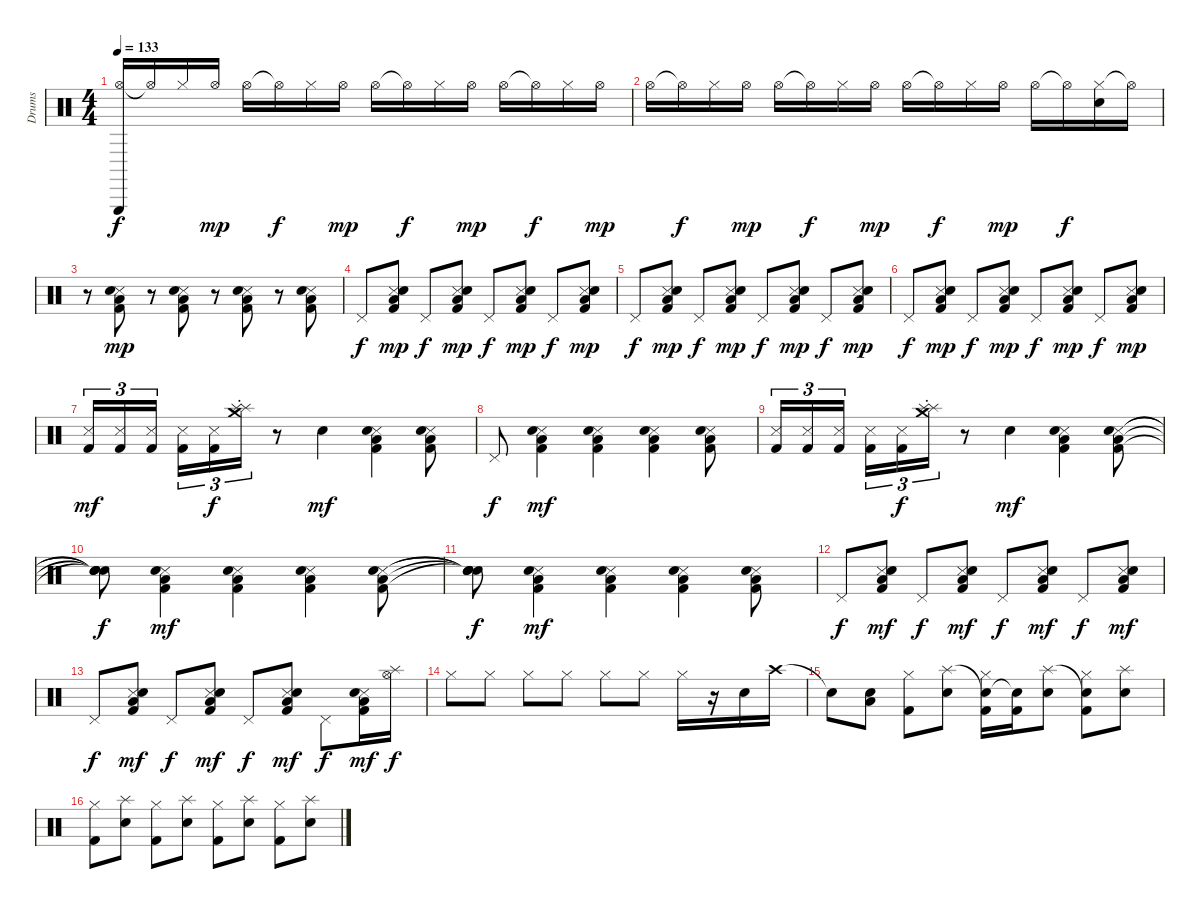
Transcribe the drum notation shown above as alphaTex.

\track ("Drums" "Drums") {instrument percussion}
\staff {score}
\articulation defaults
\ts (4 4)
\tempo 133
\clef neutral
\ks c
("Hi-Hat (open)" "Triangle (hit)").16{dy f} "Hi-Hat (open)"{t}.16 "Hi-Hat (closed)".16 "Hi-Hat (open)".16{dy mp} "Hi-Hat (open)".16 "Hi-Hat (open)"{t}.16{dy f} "Hi-Hat (closed)".16 "Hi-Hat (open)".16{dy mp} "Hi-Hat (open)".16 "Hi-Hat (open)"{t}.16{dy f} "Hi-Hat (closed)".16 "Hi-Hat (open)".16{dy mp} "Hi-Hat (open)".16 "Hi-Hat (open)"{t}.16{dy f} "Hi-Hat (closed)".16 "Hi-Hat (open)".16{dy mp} |
"Hi-Hat (open)".16 "Hi-Hat (open)"{t}.16{dy f} "Hi-Hat (closed)".16 "Hi-Hat (open)".16{dy mp} "Hi-Hat (open)".16 "Hi-Hat (open)"{t}.16{dy f} "Hi-Hat (closed)".16 "Hi-Hat (open)".16{dy mp} "Hi-Hat (open)".16 "Hi-Hat (open)"{t}.16{dy f} "Hi-Hat (closed)".16 "Hi-Hat (open)".16{dy mp} "Hi-Hat (open)".16 "Hi-Hat (open)"{t}.16{dy f} ("Hi-Hat (closed)" "Snare (hit) 2").16 "Hi-Hat (open)"{t}.16 |
r.8 ("Snare (side stick) 3" "Kick (hit) 2" "Low Tom (hit)" "Snare (hit) 2").8{dy mp} r.8 ("Snare (side stick) 3" "Kick (hit) 2" "Low Tom (hit)" "Snare (hit) 2").8 r.8 ("Snare (side stick) 3" "Kick (hit) 2" "Low Tom (hit)" "Snare (hit) 2").8 r.8 ("Snare (side stick) 3" "Kick (hit) 2" "Low Tom (hit)" "Snare (hit) 2").8 |
"Pedal Hi-Hat (hit)".8{dy f} ("Snare (side stick) 3" "Kick (hit) 2" "Low Tom (hit)" "Snare (hit) 2").8{dy mp} "Pedal Hi-Hat (hit)".8{dy f} ("Snare (side stick) 3" "Kick (hit) 2" "Low Tom (hit)" "Snare (hit) 2").8{dy mp} "Pedal Hi-Hat (hit)".8{dy f} ("Snare (side stick) 3" "Kick (hit) 2" "Low Tom (hit)" "Snare (hit) 2").8{dy mp} "Pedal Hi-Hat (hit)".8{dy f} ("Snare (side stick) 3" "Kick (hit) 2" "Low Tom (hit)" "Snare (hit) 2").8{dy mp} |
"Pedal Hi-Hat (hit)".8{dy f} ("Snare (side stick) 3" "Kick (hit) 2" "Low Tom (hit)" "Snare (hit) 2").8{dy mp} "Pedal Hi-Hat (hit)".8{dy f} ("Snare (side stick) 3" "Kick (hit) 2" "Low Tom (hit)" "Snare (hit) 2").8{dy mp} "Pedal Hi-Hat (hit)".8{dy f} ("Snare (side stick) 3" "Kick (hit) 2" "Low Tom (hit)" "Snare (hit) 2").8{dy mp} "Pedal Hi-Hat (hit)".8{dy f} ("Snare (side stick) 3" "Kick (hit) 2" "Low Tom (hit)" "Snare (hit) 2").8{dy mp} |
"Pedal Hi-Hat (hit)".8{dy f} ("Snare (side stick) 3" "Kick (hit) 2" "Low Tom (hit)" "Snare (hit) 2").8{dy mp} "Pedal Hi-Hat (hit)".8{dy f} ("Snare (side stick) 3" "Kick (hit) 2" "Low Tom (hit)" "Snare (hit) 2").8{dy mp} "Pedal Hi-Hat (hit)".8{dy f} ("Snare (side stick) 3" "Kick (hit) 2" "Low Tom (hit)" "Snare (hit) 2").8{dy mp} "Pedal Hi-Hat (hit)".8{dy f} ("Snare (side stick) 3" "Kick (hit) 2" "Low Tom (hit)" "Snare (hit) 2").8{dy mp} |
("Snare (side stick) 3" "Kick (hit) 2").16{tu (3 2) dy mf} ("Snare (side stick) 3" "Kick (hit) 2").16{tu (3 2)} ("Snare (side stick) 3" "Kick (hit) 2").16{tu (3 2) beam splitsecondary} ("Snare (side stick) 3" "Kick (hit) 2").16{tu (3 2)} ("Snare (side stick) 3" "Kick (hit) 2").16{tu (3 2) dy f} ("Splash (hit)" "Splash (hit)" "Crash medium (hit)"{st}).16{tu (3 2)} r.8 "Snare (hit) 2".4{dy mf} ("Snare (side stick) 3" "Kick (hit) 2" "Low Tom (hit)" "Snare (hit) 2").4 ("Snare (side stick) 3" "Kick (hit) 2" "Low Tom (hit)" "Snare (hit) 2").8 |
"Pedal Hi-Hat (hit)".8{dy f} ("Snare (side stick) 3" "Kick (hit) 2" "Low Tom (hit)" "Snare (hit) 2").4{dy mf} ("Snare (side stick) 3" "Kick (hit) 2" "Low Tom (hit)" "Snare (hit) 2").4 ("Snare (side stick) 3" "Kick (hit) 2" "Low Tom (hit)" "Snare (hit) 2").4 ("Snare (side stick) 3" "Kick (hit) 2" "Low Tom (hit)" "Snare (hit) 2").8 |
("Snare (side stick) 3" "Kick (hit) 2").16{tu (3 2)} ("Snare (side stick) 3" "Kick (hit) 2").16{tu (3 2)} ("Snare (side stick) 3" "Kick (hit) 2").16{tu (3 2) beam splitsecondary} ("Snare (side stick) 3" "Kick (hit) 2").16{tu (3 2)} ("Snare (side stick) 3" "Kick (hit) 2").16{tu (3 2) dy f} ("Splash (hit)" "Splash (hit)" "Crash medium (hit)"{st}).16{tu (3 2)} r.8 "Snare (hit) 2".4{dy mf} ("Snare (side stick) 3" "Kick (hit) 2" "Low Tom (hit)" "Snare (hit) 2").4 ("Snare (side stick) 3" "Kick (hit) 2" "Low Tom (hit)" "Snare (hit) 2").8 |
("Snare (hit)"{t} "Snare (hit)"{t} "Snare (hit)"{t} "Snare (hit)"{t}).8{dy f} ("Snare (side stick) 3" "Kick (hit) 2" "Low Tom (hit)" "Snare (hit) 2").4{dy mf} ("Snare (side stick) 3" "Kick (hit) 2" "Low Tom (hit)" "Snare (hit) 2").4 ("Snare (side stick) 3" "Kick (hit) 2" "Low Tom (hit)" "Snare (hit) 2").4 ("Snare (side stick) 3" "Kick (hit) 2" "Low Tom (hit)" "Snare (hit) 2").8 |
("Snare (hit)"{t} "Snare (hit)"{t} "Snare (hit)"{t} "Snare (hit)"{t}).8{dy f} ("Snare (side stick) 3" "Kick (hit) 2" "Low Tom (hit)" "Snare (hit) 2").4{dy mf} ("Snare (side stick) 3" "Kick (hit) 2" "Low Tom (hit)" "Snare (hit) 2").4 ("Snare (side stick) 3" "Kick (hit) 2" "Low Tom (hit)" "Snare (hit) 2").4 ("Snare (side stick) 3" "Kick (hit) 2" "Low Tom (hit)" "Snare (hit) 2").8 |
"Pedal Hi-Hat (hit)".8{dy f} ("Snare (side stick) 3" "Kick (hit) 2" "Low Tom (hit)" "Snare (hit) 2").8{dy mf} "Pedal Hi-Hat (hit)".8{dy f} ("Snare (side stick) 3" "Kick (hit) 2" "Low Tom (hit)" "Snare (hit) 2").8{dy mf} "Pedal Hi-Hat (hit)".8{dy f} ("Snare (side stick) 3" "Kick (hit) 2" "Low Tom (hit)" "Snare (hit) 2").8{dy mf} "Pedal Hi-Hat (hit)".8{dy f} ("Snare (side stick) 3" "Kick (hit) 2" "Low Tom (hit)" "Snare (hit) 2").8{dy mf} |
"Pedal Hi-Hat (hit)".8{dy f} ("Snare (side stick) 3" "Kick (hit) 2" "Low Tom (hit)" "Snare (hit) 2").8{dy mf} "Pedal Hi-Hat (hit)".8{dy f} ("Snare (side stick) 3" "Kick (hit) 2" "Low Tom (hit)" "Snare (hit) 2").8{dy mf} "Pedal Hi-Hat (hit)".8{dy f} ("Snare (side stick) 3" "Kick (hit) 2" "Low Tom (hit)" "Snare (hit) 2").8{dy mf} "Pedal Hi-Hat (hit)".8{dy f} ("Snare (side stick) 3" "Kick (hit) 2" "Low Tom (hit)" "Snare (hit) 2").16{dy mf} ("Hi-Hat (open)" "Splash (hit)").16{dy f} |
"Hi-Hat (closed)".8 "Hi-Hat (closed)".8 "Hi-Hat (closed)".8 "Hi-Hat (closed)".8 "Hi-Hat (closed)".8 "Hi-Hat (closed)".8 "Hi-Hat (closed)".16 r.16 "Snare (hit) 2".16 "Crash high (hit)".16 |
"Snare (hit)"{t}.8 ("Snare (hit) 2" "Low Floor Tom (hit)").8 ("Hi-Hat (closed)" "Kick (hit) 2").8 ("Splash (hit)" "Snare (hit) 2").8 ("Snare (hit)"{t} "Hi-Hat (closed)" "Kick (hit) 2").16 ("Snare (hit)"{t} "Kick (hit) 2").16 ("Splash (hit)" "Snare (hit) 2").8 ("Snare (hit)"{t} "Hi-Hat (closed)" "Kick (hit) 2").8 ("Splash (hit)" "Snare (hit) 2").8 |
("Hi-Hat (closed)" "Kick (hit) 2").8 ("Splash (hit)" "Snare (hit) 2").8 ("Hi-Hat (closed)" "Kick (hit) 2").8 ("Splash (hit)" "Snare (hit) 2").8 ("Hi-Hat (closed)" "Kick (hit) 2").8 ("Splash (hit)" "Snare (hit) 2").8 ("Hi-Hat (closed)" "Kick (hit) 2").8 ("Splash (hit)" "Snare (hit) 2").8
